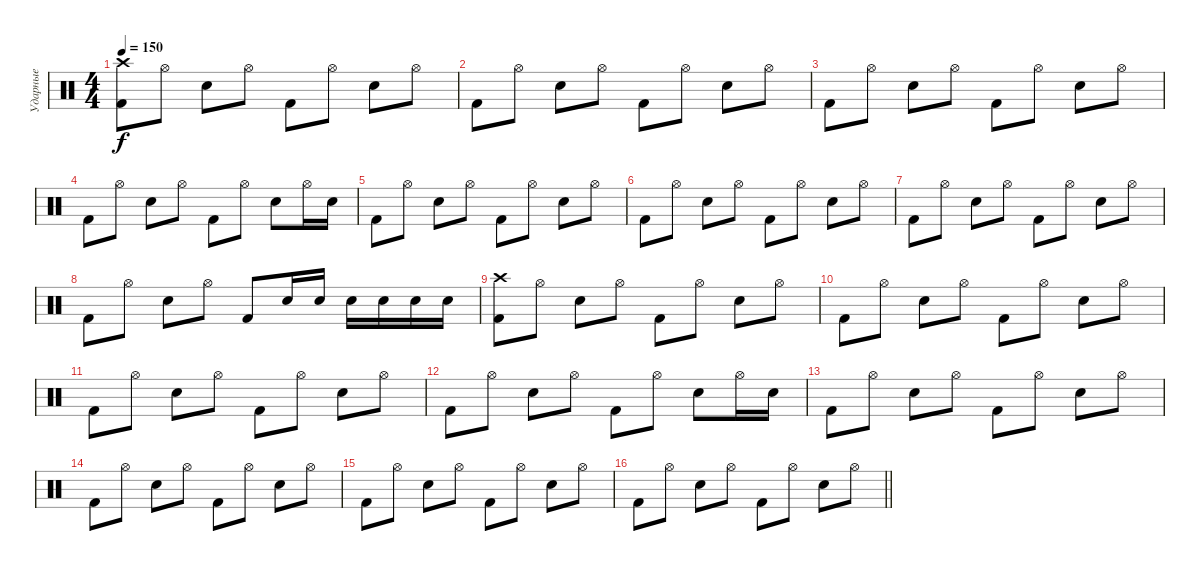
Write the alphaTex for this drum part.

\track ("Ударные" "Ударные") {instrument percussion}
\staff {score}
\articulation defaults
\ts (4 4)
\tempo 150
\clef neutral
\ks c
("Crash high (hit)" "Kick (hit) 2").8{dy f} "Hi-Hat (open)".8 "Snare (hit) 2".8 "Hi-Hat (open)".8 "Kick (hit) 2".8 "Hi-Hat (open)".8 "Snare (hit) 2".8 "Hi-Hat (open)".8 |
"Kick (hit) 2".8 "Hi-Hat (open)".8 "Snare (hit) 2".8 "Hi-Hat (open)".8 "Kick (hit) 2".8 "Hi-Hat (open)".8 "Snare (hit) 2".8 "Hi-Hat (open)".8 |
"Kick (hit) 2".8 "Hi-Hat (open)".8 "Snare (hit) 2".8 "Hi-Hat (open)".8 "Kick (hit) 2".8 "Hi-Hat (open)".8 "Snare (hit) 2".8 "Hi-Hat (open)".8 |
"Kick (hit) 2".8 "Hi-Hat (open)".8 "Snare (hit) 2".8 "Hi-Hat (open)".8 "Kick (hit) 2".8 "Hi-Hat (open)".8 "Snare (hit) 2".8 "Hi-Hat (open)".16 "Snare (hit) 2".16 |
"Kick (hit) 2".8 "Hi-Hat (open)".8 "Snare (hit) 2".8 "Hi-Hat (open)".8 "Kick (hit) 2".8 "Hi-Hat (open)".8 "Snare (hit) 2".8 "Hi-Hat (open)".8 |
"Kick (hit) 2".8 "Hi-Hat (open)".8 "Snare (hit) 2".8 "Hi-Hat (open)".8 "Kick (hit) 2".8 "Hi-Hat (open)".8 "Snare (hit) 2".8 "Hi-Hat (open)".8 |
"Kick (hit) 2".8 "Hi-Hat (open)".8 "Snare (hit) 2".8 "Hi-Hat (open)".8 "Kick (hit) 2".8 "Hi-Hat (open)".8 "Snare (hit) 2".8 "Hi-Hat (open)".8 |
"Kick (hit) 2".8 "Hi-Hat (open)".8 "Snare (hit) 2".8 "Hi-Hat (open)".8 "Kick (hit) 2".8 "Snare (hit) 2".16 "Snare (hit) 2".16 "Snare (hit) 2".16 "Snare (hit) 2".16 "Snare (hit) 2".16 "Snare (hit) 2".16 |
("Crash high (hit)" "Kick (hit) 2").8 "Hi-Hat (open)".8 "Snare (hit) 2".8 "Hi-Hat (open)".8 "Kick (hit) 2".8 "Hi-Hat (open)".8 "Snare (hit) 2".8 "Hi-Hat (open)".8 |
"Kick (hit) 2".8 "Hi-Hat (open)".8 "Snare (hit) 2".8 "Hi-Hat (open)".8 "Kick (hit) 2".8 "Hi-Hat (open)".8 "Snare (hit) 2".8 "Hi-Hat (open)".8 |
"Kick (hit) 2".8 "Hi-Hat (open)".8 "Snare (hit) 2".8 "Hi-Hat (open)".8 "Kick (hit) 2".8 "Hi-Hat (open)".8 "Snare (hit) 2".8 "Hi-Hat (open)".8 |
"Kick (hit) 2".8 "Hi-Hat (open)".8 "Snare (hit) 2".8 "Hi-Hat (open)".8 "Kick (hit) 2".8 "Hi-Hat (open)".8 "Snare (hit) 2".8 "Hi-Hat (open)".16 "Snare (hit) 2".16 |
"Kick (hit) 2".8 "Hi-Hat (open)".8 "Snare (hit) 2".8 "Hi-Hat (open)".8 "Kick (hit) 2".8 "Hi-Hat (open)".8 "Snare (hit) 2".8 "Hi-Hat (open)".8 |
"Kick (hit) 2".8 "Hi-Hat (open)".8 "Snare (hit) 2".8 "Hi-Hat (open)".8 "Kick (hit) 2".8 "Hi-Hat (open)".8 "Snare (hit) 2".8 "Hi-Hat (open)".8 |
"Kick (hit) 2".8 "Hi-Hat (open)".8 "Snare (hit) 2".8 "Hi-Hat (open)".8 "Kick (hit) 2".8 "Hi-Hat (open)".8 "Snare (hit) 2".8 "Hi-Hat (open)".8 |
\barLineRight lightlight "Kick (hit) 2".8 "Hi-Hat (open)".8 "Snare (hit) 2".8 "Hi-Hat (open)".8 "Kick (hit) 2".8 "Hi-Hat (open)".8 "Snare (hit) 2".8 "Hi-Hat (open)".8
